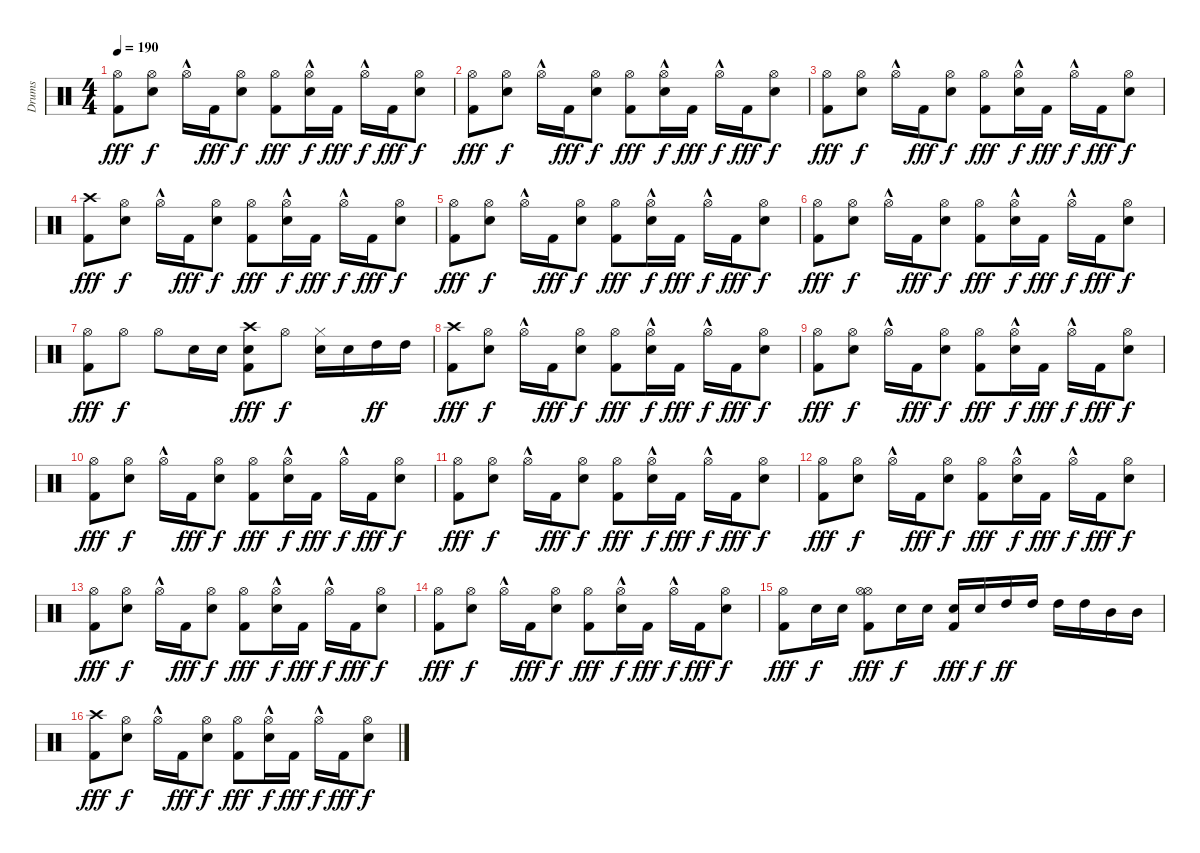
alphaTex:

\track ("Drums" "Drums") {instrument percussion}
\staff {score}
\articulation defaults
\ts (4 4)
\tempo 190
\clef neutral
\ks c
("Hi-Hat (open)" "Kick (hit) 2").8{dy fff} ("Hi-Hat (open)" "Electric Snare (hit)").8{dy f} "Hi-Hat (open)"{hac}.16 "Kick (hit) 2".16{dy fff} ("Hi-Hat (open)" "Electric Snare (hit)").8{dy f} ("Hi-Hat (open)" "Kick (hit) 2").8{dy fff} ("Hi-Hat (open)"{hac} "Electric Snare (hit)").16{dy f} "Kick (hit) 2".16{dy fff} "Hi-Hat (open)"{hac}.16{dy f} "Kick (hit) 2".16{dy fff} ("Hi-Hat (open)" "Electric Snare (hit)").8{dy f} |
("Hi-Hat (open)" "Kick (hit) 2").8{dy fff} ("Hi-Hat (open)" "Electric Snare (hit)").8{dy f} "Hi-Hat (open)"{hac}.16 "Kick (hit) 2".16{dy fff} ("Hi-Hat (open)" "Electric Snare (hit)").8{dy f} ("Hi-Hat (open)" "Kick (hit) 2").8{dy fff} ("Hi-Hat (open)"{hac} "Electric Snare (hit)").16{dy f} "Kick (hit) 2".16{dy fff} "Hi-Hat (open)"{hac}.16{dy f} "Kick (hit) 2".16{dy fff} ("Hi-Hat (open)" "Electric Snare (hit)").8{dy f} |
("Hi-Hat (open)" "Kick (hit) 2").8{dy fff} ("Hi-Hat (open)" "Electric Snare (hit)").8{dy f} "Hi-Hat (open)"{hac}.16 "Kick (hit) 2".16{dy fff} ("Hi-Hat (open)" "Electric Snare (hit)").8{dy f} ("Hi-Hat (open)" "Kick (hit) 2").8{dy fff} ("Hi-Hat (open)"{hac} "Electric Snare (hit)").16{dy f} "Kick (hit) 2".16{dy fff} "Hi-Hat (open)"{hac}.16{dy f} "Kick (hit) 2".16{dy fff} ("Hi-Hat (open)" "Electric Snare (hit)").8{dy f} |
("Crash high (hit)" "Kick (hit) 2").8{dy fff} ("Hi-Hat (open)" "Electric Snare (hit)").8{dy f} "Hi-Hat (open)"{hac}.16 "Kick (hit) 2".16{dy fff} ("Hi-Hat (open)" "Electric Snare (hit)").8{dy f} ("Hi-Hat (open)" "Kick (hit) 2").8{dy fff} ("Hi-Hat (open)"{hac} "Electric Snare (hit)").16{dy f} "Kick (hit) 2".16{dy fff} "Hi-Hat (open)"{hac}.16{dy f} "Kick (hit) 2".16{dy fff} ("Hi-Hat (open)" "Electric Snare (hit)").8{dy f} |
("Hi-Hat (open)" "Kick (hit) 2").8{dy fff} ("Hi-Hat (open)" "Electric Snare (hit)").8{dy f} "Hi-Hat (open)"{hac}.16 "Kick (hit) 2".16{dy fff} ("Hi-Hat (open)" "Electric Snare (hit)").8{dy f} ("Hi-Hat (open)" "Kick (hit) 2").8{dy fff} ("Hi-Hat (open)"{hac} "Electric Snare (hit)").16{dy f} "Kick (hit) 2".16{dy fff} "Hi-Hat (open)"{hac}.16{dy f} "Kick (hit) 2".16{dy fff} ("Hi-Hat (open)" "Electric Snare (hit)").8{dy f} |
("Hi-Hat (open)" "Kick (hit) 2").8{dy fff} ("Hi-Hat (open)" "Electric Snare (hit)").8{dy f} "Hi-Hat (open)"{hac}.16 "Kick (hit) 2".16{dy fff} ("Hi-Hat (open)" "Electric Snare (hit)").8{dy f} ("Hi-Hat (open)" "Kick (hit) 2").8{dy fff} ("Hi-Hat (open)"{hac} "Electric Snare (hit)").16{dy f} "Kick (hit) 2".16{dy fff} "Hi-Hat (open)"{hac}.16{dy f} "Kick (hit) 2".16{dy fff} ("Hi-Hat (open)" "Electric Snare (hit)").8{dy f} |
("Hi-Hat (open)" "Kick (hit) 2").8{dy fff} "Hi-Hat (open)".8{dy f} "Hi-Hat (open)".8 "Electric Snare (hit)".16 "Electric Snare (hit)".16 ("Crash high (hit)" "Electric Snare (hit)" "Kick (hit) 2").8{dy fff} "Hi-Hat (open)".8{dy f} ("Hi-Hat (closed)" "Electric Snare (hit)").16 "Electric Snare (hit)".16 "High Tom (hit)".16{dy ff} "High Tom (hit)".16 |
("Crash high (hit)" "Kick (hit) 2").8{dy fff} ("Hi-Hat (open)" "Electric Snare (hit)").8{dy f} "Hi-Hat (open)"{hac}.16 "Kick (hit) 2".16{dy fff} ("Hi-Hat (open)" "Electric Snare (hit)").8{dy f} ("Hi-Hat (open)" "Kick (hit) 2").8{dy fff} ("Hi-Hat (open)"{hac} "Electric Snare (hit)").16{dy f} "Kick (hit) 2".16{dy fff} "Hi-Hat (open)"{hac}.16{dy f} "Kick (hit) 2".16{dy fff} ("Hi-Hat (open)" "Electric Snare (hit)").8{dy f} |
("Hi-Hat (open)" "Kick (hit) 2").8{dy fff} ("Hi-Hat (open)" "Electric Snare (hit)").8{dy f} "Hi-Hat (open)"{hac}.16 "Kick (hit) 2".16{dy fff} ("Hi-Hat (open)" "Electric Snare (hit)").8{dy f} ("Hi-Hat (open)" "Kick (hit) 2").8{dy fff} ("Hi-Hat (open)"{hac} "Electric Snare (hit)").16{dy f} "Kick (hit) 2".16{dy fff} "Hi-Hat (open)"{hac}.16{dy f} "Kick (hit) 2".16{dy fff} ("Hi-Hat (open)" "Electric Snare (hit)").8{dy f} |
("Hi-Hat (open)" "Kick (hit) 2").8{dy fff} ("Hi-Hat (open)" "Electric Snare (hit)").8{dy f} "Hi-Hat (open)"{hac}.16 "Kick (hit) 2".16{dy fff} ("Hi-Hat (open)" "Electric Snare (hit)").8{dy f} ("Hi-Hat (open)" "Kick (hit) 2").8{dy fff} ("Hi-Hat (open)"{hac} "Electric Snare (hit)").16{dy f} "Kick (hit) 2".16{dy fff} "Hi-Hat (open)"{hac}.16{dy f} "Kick (hit) 2".16{dy fff} ("Hi-Hat (open)" "Electric Snare (hit)").8{dy f} |
("Hi-Hat (open)" "Kick (hit) 2").8{dy fff} ("Hi-Hat (open)" "Electric Snare (hit)").8{dy f} "Hi-Hat (open)"{hac}.16 "Kick (hit) 2".16{dy fff} ("Hi-Hat (open)" "Electric Snare (hit)").8{dy f} ("Hi-Hat (open)" "Kick (hit) 2").8{dy fff} ("Hi-Hat (open)"{hac} "Electric Snare (hit)").16{dy f} "Kick (hit) 2".16{dy fff} "Hi-Hat (open)"{hac}.16{dy f} "Kick (hit) 2".16{dy fff} ("Hi-Hat (open)" "Electric Snare (hit)").8{dy f} |
("Hi-Hat (open)" "Kick (hit) 2").8{dy fff} ("Hi-Hat (open)" "Electric Snare (hit)").8{dy f} "Hi-Hat (open)"{hac}.16 "Kick (hit) 2".16{dy fff} ("Hi-Hat (open)" "Electric Snare (hit)").8{dy f} ("Hi-Hat (open)" "Kick (hit) 2").8{dy fff} ("Hi-Hat (open)"{hac} "Electric Snare (hit)").16{dy f} "Kick (hit) 2".16{dy fff} "Hi-Hat (open)"{hac}.16{dy f} "Kick (hit) 2".16{dy fff} ("Hi-Hat (open)" "Electric Snare (hit)").8{dy f} |
("Hi-Hat (open)" "Kick (hit) 2").8{dy fff} ("Hi-Hat (open)" "Electric Snare (hit)").8{dy f} "Hi-Hat (open)"{hac}.16 "Kick (hit) 2".16{dy fff} ("Hi-Hat (open)" "Electric Snare (hit)").8{dy f} ("Hi-Hat (open)" "Kick (hit) 2").8{dy fff} ("Hi-Hat (open)"{hac} "Electric Snare (hit)").16{dy f} "Kick (hit) 2".16{dy fff} "Hi-Hat (open)"{hac}.16{dy f} "Kick (hit) 2".16{dy fff} ("Hi-Hat (open)" "Electric Snare (hit)").8{dy f} |
("Hi-Hat (open)" "Kick (hit) 2").8{dy fff} ("Hi-Hat (open)" "Electric Snare (hit)").8{dy f} "Hi-Hat (open)"{hac}.16 "Kick (hit) 2".16{dy fff} ("Hi-Hat (open)" "Electric Snare (hit)").8{dy f} ("Hi-Hat (open)" "Kick (hit) 2").8{dy fff} ("Hi-Hat (open)"{hac} "Electric Snare (hit)").16{dy f} "Kick (hit) 2".16{dy fff} "Hi-Hat (open)"{hac}.16{dy f} "Kick (hit) 2".16{dy fff} ("Hi-Hat (open)" "Electric Snare (hit)").8{dy f} |
("Hi-Hat (open)" "Kick (hit) 2").8{dy fff} "Electric Snare (hit)".16{dy f} "Electric Snare (hit)".16 ("Hi-Hat (open)" "Hi-Hat (open)" "Kick (hit) 2").8{dy fff} "Electric Snare (hit)".16{dy f} "Electric Snare (hit)".16 ("Electric Snare (hit)" "Kick (hit) 2").16{dy fff} "Electric Snare (hit)".16{dy f} "High Tom (hit)".16{dy ff} "High Tom (hit)".16 "High Tom (hit)".16 "High Tom (hit)".16 "Mid Tom (hit)".16 "Mid Tom (hit)".16 |
("Crash high (hit)" "Kick (hit) 2").8{dy fff} ("Hi-Hat (open)" "Electric Snare (hit)").8{dy f} "Hi-Hat (open)"{hac}.16 "Kick (hit) 2".16{dy fff} ("Hi-Hat (open)" "Electric Snare (hit)").8{dy f} ("Hi-Hat (open)" "Kick (hit) 2").8{dy fff} ("Hi-Hat (open)"{hac} "Electric Snare (hit)").16{dy f} "Kick (hit) 2".16{dy fff} "Hi-Hat (open)"{hac}.16{dy f} "Kick (hit) 2".16{dy fff} ("Hi-Hat (open)" "Electric Snare (hit)").8{dy f}
